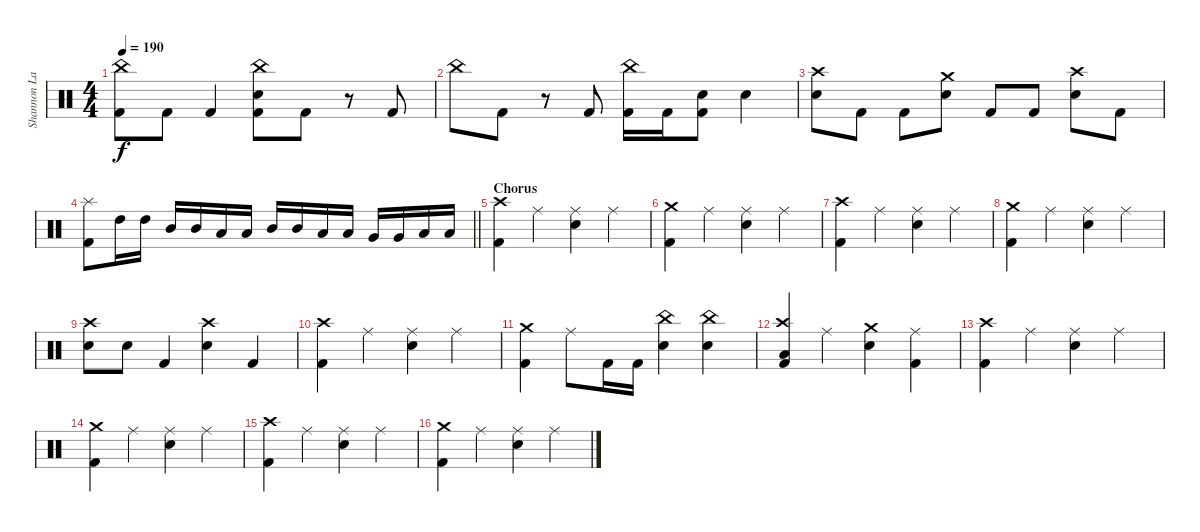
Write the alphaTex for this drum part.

\track ("Shannon Larkin" "Shannon La") {instrument percussion}
\staff {score}
\articulation defaults
\ts (4 4)
\tempo 190
\clef neutral
\ks c
("China (hit)" "Kick (hit) 2").8{dy f} "Kick (hit) 2".8 "Kick (hit) 2".4 ("China (hit)" "Snare (hit) 2" "Kick (hit) 2").8 "Kick (hit) 2".8 r.8 "Kick (hit) 2".8 |
"China (hit)".8 "Kick (hit) 2".8 r.8 "Kick (hit) 2".8 ("China (hit)" "Kick (hit) 2").16 "Kick (hit) 2".16 ("Snare (hit) 2" "Kick (hit) 2").8 "Snare (hit) 2".4 |
("Crash high (hit)" "Snare (hit) 2").8 "Kick (hit) 2".8 "Kick (hit) 2".8 ("Crash medium (hit)" "Snare (hit) 2").8 "Kick (hit) 2".8 "Kick (hit) 2".8 ("Crash high (hit)" "Snare (hit) 2").8 "Kick (hit) 2".8 |
\barLineRight lightlight
("Splash (hit)" "Kick (hit) 2").8 "High Tom (hit)".16 "High Tom (hit)".16 "Mid Tom (hit)".16 "Mid Tom (hit)".16 "Low Tom (hit)".16 "Low Tom (hit)".16 "Mid Tom (hit)".16 "Mid Tom (hit)".16 "Low Tom (hit)".16 "Low Tom (hit)".16 "Very Low Tom (hit)".16 "Very Low Tom (hit)".16 "Low Floor Tom (hit)".16 "Low Floor Tom (hit)".16 |
\section ("" "Chorus")
("Crash high (hit)" "Kick (hit) 2").4 "Ride (middle)".4 ("Ride (middle)" "Snare (hit) 2").4 "Ride (middle)".4 |
("Crash medium (hit)" "Kick (hit) 2").4 "Ride (middle)".4 ("Ride (middle)" "Snare (hit) 2").4 "Ride (middle)".4 |
("Crash high (hit)" "Kick (hit) 2").4 "Ride (middle)".4 ("Ride (middle)" "Snare (hit) 2").4 "Ride (middle)".4 |
("Crash medium (hit)" "Kick (hit) 2").4 "Ride (middle)".4 ("Ride (middle)" "Snare (hit) 2").4 "Ride (middle)".4 |
("Crash high (hit)" "Snare (hit) 2").8 "Snare (hit) 2".8 "Kick (hit) 2".4 ("Crash high (hit)" "Snare (hit) 2").4 "Kick (hit) 2".4 |
("Crash high (hit)" "Kick (hit) 2").4 "Ride (middle)".4 ("Ride (middle)" "Snare (hit) 2").4 "Ride (middle)".4 |
("Crash medium (hit)" "Kick (hit) 2").4 "Ride (middle)".8 "Kick (hit) 2".16 "Kick (hit) 2".16 ("China (hit)" "Snare (hit) 2").4 ("China (hit)" "Snare (hit) 2").4 |
("Crash high (hit)" "Low Tom (hit)" "Kick (hit) 2").4 "Ride (middle)".4 ("Crash medium (hit)" "Snare (hit) 2").4 ("Ride (middle)" "Kick (hit) 2").4 |
("Crash high (hit)" "Kick (hit) 2").4 "Ride (middle)".4 ("Ride (middle)" "Snare (hit) 2").4 "Ride (middle)".4 |
("Crash medium (hit)" "Kick (hit) 2").4 "Ride (middle)".4 ("Ride (middle)" "Snare (hit) 2").4 "Ride (middle)".4 |
("Crash high (hit)" "Kick (hit) 2").4 "Ride (middle)".4 ("Ride (middle)" "Snare (hit) 2").4 "Ride (middle)".4 |
("Crash medium (hit)" "Kick (hit) 2").4 "Ride (middle)".4 ("Ride (middle)" "Snare (hit) 2").4 "Ride (middle)".4
